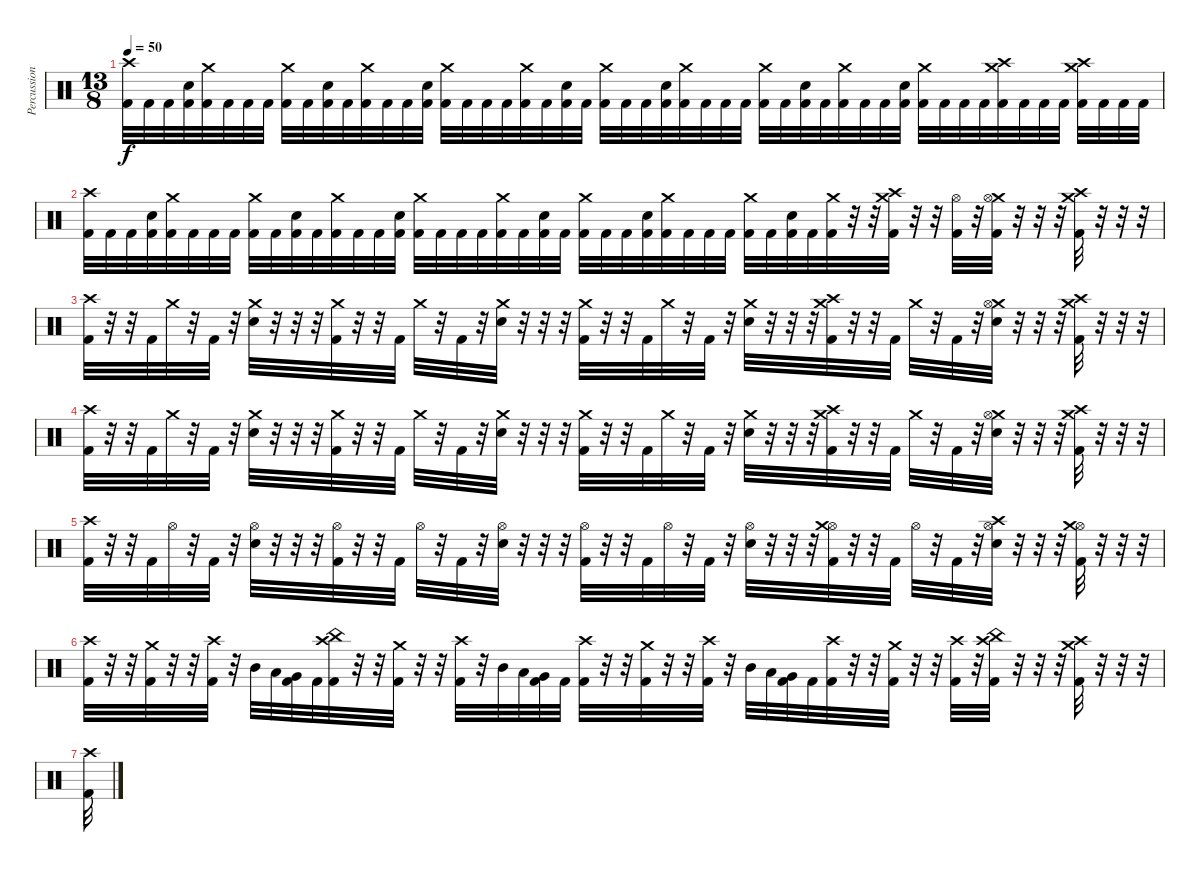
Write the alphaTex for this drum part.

\track ("Percussion" "Percussion") {instrument percussion}
\staff {score}
\articulation defaults
\ts (13 8)
\tempo 50
\clef neutral
\ks c
("Crash high (hit)" "Kick (hit) 2").32{dy f} "Kick (hit) 2".32 "Kick (hit) 2".32 ("Snare (hit) 2" "Kick (hit) 2").32 ("Crash medium (hit)" "Kick (hit) 2").32 "Kick (hit) 2".32 "Kick (hit) 2".32 "Kick (hit) 2".32 ("Crash medium (hit)" "Kick (hit) 2").32 "Kick (hit) 2".32 ("Snare (hit) 2" "Kick (hit) 2").32 "Kick (hit) 2".32 ("Crash medium (hit)" "Kick (hit) 2").32 "Kick (hit) 2".32 "Kick (hit) 2".32 ("Snare (hit) 2" "Kick (hit) 2").32 ("Crash medium (hit)" "Kick (hit) 2").32 "Kick (hit) 2".32 "Kick (hit) 2".32 "Kick (hit) 2".32 ("Crash medium (hit)" "Kick (hit) 2").32 "Kick (hit) 2".32 ("Snare (hit) 2" "Kick (hit) 2").32 "Kick (hit) 2".32 ("Crash medium (hit)" "Kick (hit) 2").32 "Kick (hit) 2".32 "Kick (hit) 2".32 ("Snare (hit) 2" "Kick (hit) 2").32 ("Crash medium (hit)" "Kick (hit) 2").32 "Kick (hit) 2".32 "Kick (hit) 2".32 "Kick (hit) 2".32 ("Crash medium (hit)" "Kick (hit) 2").32 "Kick (hit) 2".32 ("Snare (hit) 2" "Kick (hit) 2").32 "Kick (hit) 2".32 ("Crash medium (hit)" "Kick (hit) 2").32 "Kick (hit) 2".32 "Kick (hit) 2".32 ("Snare (hit) 2" "Kick (hit) 2").32 ("Crash medium (hit)" "Kick (hit) 2").32 "Kick (hit) 2".32 "Kick (hit) 2".32 "Kick (hit) 2".32 ("Crash medium (hit)" "Crash high (hit)" "Kick (hit) 2").32 "Kick (hit) 2".32 "Kick (hit) 2".32 "Kick (hit) 2".32 ("Crash medium (hit)" "Crash high (hit)" "Kick (hit) 2").32 "Kick (hit) 2".32 "Kick (hit) 2".32 "Kick (hit) 2".32 |
("Crash high (hit)" "Kick (hit) 2").32 "Kick (hit) 2".32 "Kick (hit) 2".32 ("Snare (hit) 2" "Kick (hit) 2").32 ("Crash medium (hit)" "Kick (hit) 2").32 "Kick (hit) 2".32 "Kick (hit) 2".32 "Kick (hit) 2".32 ("Crash medium (hit)" "Kick (hit) 2").32 "Kick (hit) 2".32 ("Snare (hit) 2" "Kick (hit) 2").32 "Kick (hit) 2".32 ("Crash medium (hit)" "Kick (hit) 2").32 "Kick (hit) 2".32 "Kick (hit) 2".32 ("Snare (hit) 2" "Kick (hit) 2").32 ("Crash medium (hit)" "Kick (hit) 2").32 "Kick (hit) 2".32 "Kick (hit) 2".32 "Kick (hit) 2".32 ("Crash medium (hit)" "Kick (hit) 2").32 "Kick (hit) 2".32 ("Snare (hit) 2" "Kick (hit) 2").32 "Kick (hit) 2".32 ("Crash medium (hit)" "Kick (hit) 2").32 "Kick (hit) 2".32 "Kick (hit) 2".32 ("Snare (hit) 2" "Kick (hit) 2").32 ("Crash medium (hit)" "Kick (hit) 2").32 "Kick (hit) 2".32 "Kick (hit) 2".32 "Kick (hit) 2".32 ("Crash medium (hit)" "Kick (hit) 2").32 "Kick (hit) 2".32 ("Snare (hit) 2" "Kick (hit) 2").32 "Kick (hit) 2".32 ("Crash medium (hit)" "Kick (hit) 2").32 r.32 r.32 ("Crash medium (hit)" "Crash high (hit)" "Kick (hit) 2").32 r.32 r.32 ("Hi-Hat (open)" "Kick (hit) 2").32 r.32 ("Crash medium (hit)" "Hi-Hat (open)" "Kick (hit) 2").32 r.32 r.32 r.32 ("Crash medium (hit)" "Crash high (hit)" "Kick (hit) 2").32 r.32 r.32 r.32 |
("Crash high (hit)" "Kick (hit) 2").32 r.32 r.32 "Kick (hit) 2".32 "Crash medium (hit)".32 r.32 "Kick (hit) 2".32 r.32 ("Crash medium (hit)" "Snare (hit) 2").32 r.32 r.32 r.32 ("Crash medium (hit)" "Kick (hit) 2").32 r.32 r.32 "Kick (hit) 2".32 "Crash medium (hit)".32 r.32 "Kick (hit) 2".32 r.32 ("Crash medium (hit)" "Snare (hit) 2").32 r.32 r.32 r.32 ("Crash medium (hit)" "Kick (hit) 2").32 r.32 r.32 "Kick (hit) 2".32 "Crash medium (hit)".32 r.32 "Kick (hit) 2".32 r.32 ("Crash medium (hit)" "Snare (hit) 2").32 r.32 r.32 r.32 ("Crash medium (hit)" "Crash high (hit)" "Kick (hit) 2").32 r.32 r.32 "Kick (hit) 2".32 "Crash medium (hit)".32 r.32 "Kick (hit) 2".32 r.32 ("Crash medium (hit)" "Hi-Hat (open)" "Snare (hit) 2").32 r.32 r.32 r.32 ("Crash medium (hit)" "Crash high (hit)" "Kick (hit) 2").32 r.32 r.32 r.32 |
("Crash high (hit)" "Kick (hit) 2").32 r.32 r.32 "Kick (hit) 2".32 "Crash medium (hit)".32 r.32 "Kick (hit) 2".32 r.32 ("Crash medium (hit)" "Snare (hit) 2").32 r.32 r.32 r.32 ("Crash medium (hit)" "Kick (hit) 2").32 r.32 r.32 "Kick (hit) 2".32 "Crash medium (hit)".32 r.32 "Kick (hit) 2".32 r.32 ("Crash medium (hit)" "Snare (hit) 2").32 r.32 r.32 r.32 ("Crash medium (hit)" "Kick (hit) 2").32 r.32 r.32 "Kick (hit) 2".32 "Crash medium (hit)".32 r.32 "Kick (hit) 2".32 r.32 ("Crash medium (hit)" "Snare (hit) 2").32 r.32 r.32 r.32 ("Crash medium (hit)" "Crash high (hit)" "Kick (hit) 2").32 r.32 r.32 "Kick (hit) 2".32 "Crash medium (hit)".32 r.32 "Kick (hit) 2".32 r.32 ("Crash medium (hit)" "Hi-Hat (open)" "Snare (hit) 2").32 r.32 r.32 r.32 ("Crash medium (hit)" "Crash high (hit)" "Kick (hit) 2").32 r.32 r.32 r.32 |
("Crash high (hit)" "Kick (hit) 2").32 r.32 r.32 "Kick (hit) 2".32 "Hi-Hat (open)".32 r.32 "Kick (hit) 2".32 r.32 ("Hi-Hat (open)" "Snare (hit) 2").32 r.32 r.32 r.32 ("Hi-Hat (open)" "Kick (hit) 2").32 r.32 r.32 "Kick (hit) 2".32 "Hi-Hat (open)".32 r.32 "Kick (hit) 2".32 r.32 ("Hi-Hat (open)" "Snare (hit) 2").32 r.32 r.32 r.32 ("Hi-Hat (open)" "Kick (hit) 2").32 r.32 r.32 "Kick (hit) 2".32 "Hi-Hat (open)".32 r.32 "Kick (hit) 2".32 r.32 ("Hi-Hat (open)" "Snare (hit) 2").32 r.32 r.32 r.32 ("Hi-Hat (open)" "Crash medium (hit)" "Kick (hit) 2").32 r.32 r.32 "Kick (hit) 2".32 "Hi-Hat (open)".32 r.32 "Kick (hit) 2".32 r.32 ("Hi-Hat (open)" "Crash high (hit)" "Snare (hit) 2").32 r.32 r.32 r.32 ("Hi-Hat (open)" "Crash medium (hit)" "Kick (hit) 2").32 r.32 r.32 r.32 |
("Crash high (hit)" "Kick (hit) 2").32 r.32 r.32 ("Crash medium (hit)" "Kick (hit) 2").32 r.32 r.32 ("Crash high (hit)" "Kick (hit) 2").32 r.32 "Mid Tom (hit)".32 "Low Tom (hit)".32 ("Very Low Tom (hit)" "Kick (hit) 2").32 "Kick (hit) 2".32 ("Crash high (hit)" "China (hit)" "Kick (hit) 2").32 r.32 r.32 ("Crash medium (hit)" "Kick (hit) 2").32 r.32 r.32 ("Crash high (hit)" "Kick (hit) 2").32 r.32 "Mid Tom (hit)".32 "Low Tom (hit)".32 ("Very Low Tom (hit)" "Kick (hit) 2").32 "Kick (hit) 2".32 ("Crash high (hit)" "Kick (hit) 2").32 r.32 r.32 ("Crash medium (hit)" "Kick (hit) 2").32 r.32 r.32 ("Crash high (hit)" "Kick (hit) 2").32 r.32 "Mid Tom (hit)".32 "Low Tom (hit)".32 ("Very Low Tom (hit)" "Kick (hit) 2").32 "Kick (hit) 2".32 ("Crash high (hit)" "Kick (hit) 2").32 r.32 r.32 ("Crash medium (hit)" "Kick (hit) 2").32 r.32 r.32 ("Crash high (hit)" "Kick (hit) 2").32 r.32 ("Crash high (hit)" "China (hit)" "Kick (hit) 2").32 r.32 r.32 r.32 ("Crash high (hit)" "Crash medium (hit)" "Kick (hit) 2").32 r.32 r.32 r.32 |
("Crash high (hit)" "Kick (hit) 2").32
